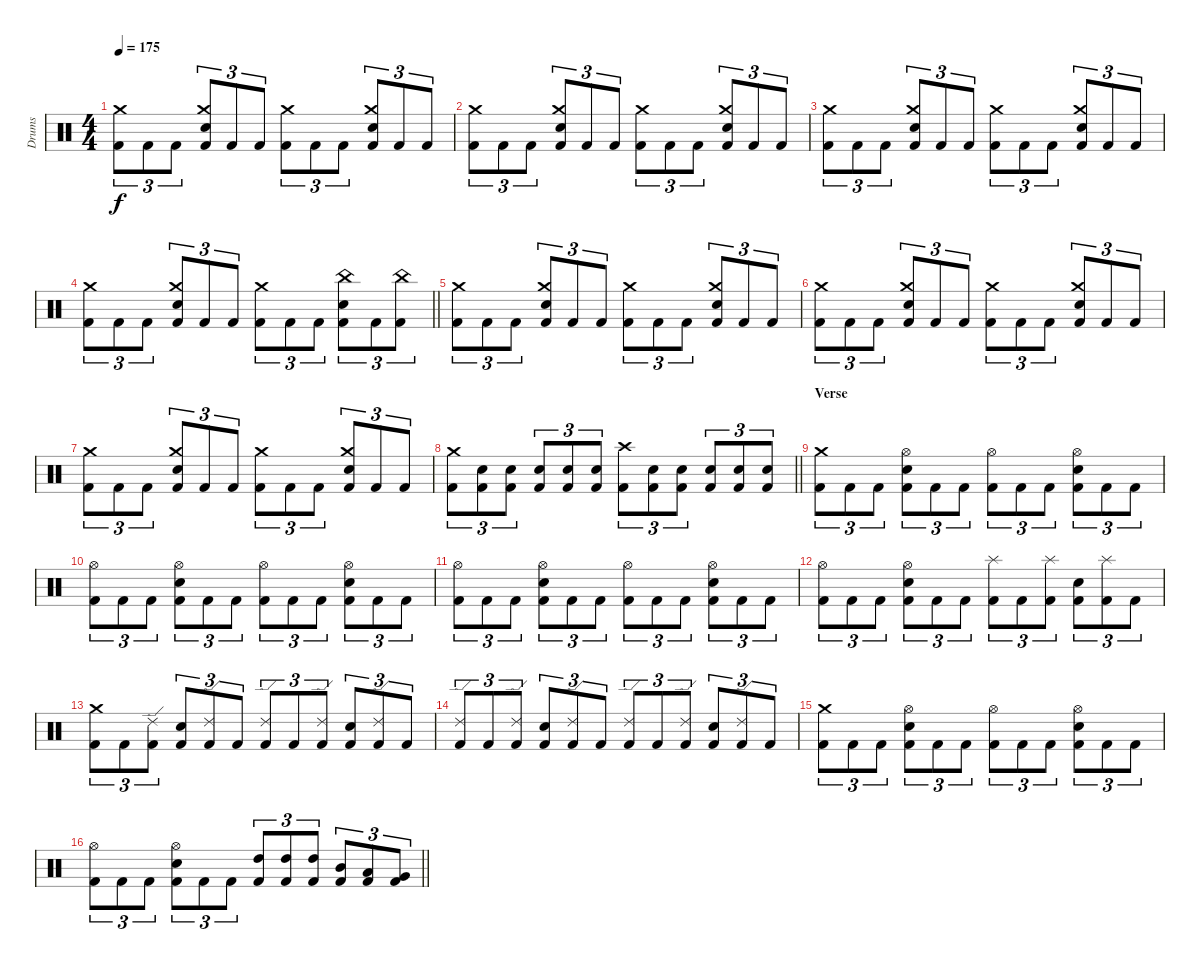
\track ("Drums" "Drums") {instrument percussion}
\staff {score}
\articulation defaults
\ts (4 4)
\section ("" "")
\tempo 175
\clef neutral
\ks c
("Kick (hit) 2" "Crash medium (hit)").8{tu (3 2) dy f} "Kick (hit) 2".8{tu (3 2)} "Kick (hit) 2".8{tu (3 2)} ("Kick (hit) 2" "Snare (hit) 2" "Crash medium (hit)").8{tu (3 2)} "Kick (hit) 2".8{tu (3 2)} "Kick (hit) 2".8{tu (3 2)} ("Kick (hit) 2" "Crash medium (hit)").8{tu (3 2)} "Kick (hit) 2".8{tu (3 2)} "Kick (hit) 2".8{tu (3 2)} ("Kick (hit) 2" "Snare (hit) 2" "Crash medium (hit)").8{tu (3 2)} "Kick (hit) 2".8{tu (3 2)} "Kick (hit) 2".8{tu (3 2)} |
("Kick (hit) 2" "Crash medium (hit)").8{tu (3 2)} "Kick (hit) 2".8{tu (3 2)} "Kick (hit) 2".8{tu (3 2)} ("Kick (hit) 2" "Snare (hit) 2" "Crash medium (hit)").8{tu (3 2)} "Kick (hit) 2".8{tu (3 2)} "Kick (hit) 2".8{tu (3 2)} ("Kick (hit) 2" "Crash medium (hit)").8{tu (3 2)} "Kick (hit) 2".8{tu (3 2)} "Kick (hit) 2".8{tu (3 2)} ("Kick (hit) 2" "Snare (hit) 2" "Crash medium (hit)").8{tu (3 2)} "Kick (hit) 2".8{tu (3 2)} "Kick (hit) 2".8{tu (3 2)} |
("Kick (hit) 2" "Crash medium (hit)").8{tu (3 2)} "Kick (hit) 2".8{tu (3 2)} "Kick (hit) 2".8{tu (3 2)} ("Kick (hit) 2" "Snare (hit) 2" "Crash medium (hit)").8{tu (3 2)} "Kick (hit) 2".8{tu (3 2)} "Kick (hit) 2".8{tu (3 2)} ("Kick (hit) 2" "Crash medium (hit)").8{tu (3 2)} "Kick (hit) 2".8{tu (3 2)} "Kick (hit) 2".8{tu (3 2)} ("Kick (hit) 2" "Snare (hit) 2" "Crash medium (hit)").8{tu (3 2)} "Kick (hit) 2".8{tu (3 2)} "Kick (hit) 2".8{tu (3 2)} |
\barLineRight lightlight
("Kick (hit) 2" "Crash medium (hit)").8{tu (3 2)} "Kick (hit) 2".8{tu (3 2)} "Kick (hit) 2".8{tu (3 2)} ("Kick (hit) 2" "Snare (hit) 2" "Crash medium (hit)").8{tu (3 2)} "Kick (hit) 2".8{tu (3 2)} "Kick (hit) 2".8{tu (3 2)} ("Kick (hit) 2" "Crash medium (hit)").8{tu (3 2)} "Kick (hit) 2".8{tu (3 2)} "Kick (hit) 2".8{tu (3 2)} ("Kick (hit) 2" "Snare (hit) 2" "China (hit)").8{tu (3 2)} "Kick (hit) 2".8{tu (3 2)} ("Kick (hit) 2" "China (hit)").8{tu (3 2)} |
("Kick (hit) 2" "Crash medium (hit)").8{tu (3 2)} "Kick (hit) 2".8{tu (3 2)} "Kick (hit) 2".8{tu (3 2)} ("Kick (hit) 2" "Snare (hit) 2" "Crash medium (hit)").8{tu (3 2)} "Kick (hit) 2".8{tu (3 2)} "Kick (hit) 2".8{tu (3 2)} ("Kick (hit) 2" "Crash medium (hit)").8{tu (3 2)} "Kick (hit) 2".8{tu (3 2)} "Kick (hit) 2".8{tu (3 2)} ("Kick (hit) 2" "Snare (hit) 2" "Crash medium (hit)").8{tu (3 2)} "Kick (hit) 2".8{tu (3 2)} "Kick (hit) 2".8{tu (3 2)} |
("Kick (hit) 2" "Crash medium (hit)").8{tu (3 2)} "Kick (hit) 2".8{tu (3 2)} "Kick (hit) 2".8{tu (3 2)} ("Kick (hit) 2" "Snare (hit) 2" "Crash medium (hit)").8{tu (3 2)} "Kick (hit) 2".8{tu (3 2)} "Kick (hit) 2".8{tu (3 2)} ("Kick (hit) 2" "Crash medium (hit)").8{tu (3 2)} "Kick (hit) 2".8{tu (3 2)} "Kick (hit) 2".8{tu (3 2)} ("Kick (hit) 2" "Snare (hit) 2" "Crash medium (hit)").8{tu (3 2)} "Kick (hit) 2".8{tu (3 2)} "Kick (hit) 2".8{tu (3 2)} |
("Kick (hit) 2" "Crash medium (hit)").8{tu (3 2)} "Kick (hit) 2".8{tu (3 2)} "Kick (hit) 2".8{tu (3 2)} ("Kick (hit) 2" "Snare (hit) 2" "Crash medium (hit)").8{tu (3 2)} "Kick (hit) 2".8{tu (3 2)} "Kick (hit) 2".8{tu (3 2)} ("Kick (hit) 2" "Crash medium (hit)").8{tu (3 2)} "Kick (hit) 2".8{tu (3 2)} "Kick (hit) 2".8{tu (3 2)} ("Kick (hit) 2" "Snare (hit) 2" "Crash medium (hit)").8{tu (3 2)} "Kick (hit) 2".8{tu (3 2)} "Kick (hit) 2".8{tu (3 2)} |
\barLineRight lightlight
("Kick (hit) 2" "Crash medium (hit)").8{tu (3 2)} ("Kick (hit) 2" "Snare (hit) 2").8{tu (3 2)} ("Kick (hit) 2" "Snare (hit) 2").8{tu (3 2)} ("Kick (hit) 2" "Snare (hit) 2").8{tu (3 2)} ("Kick (hit) 2" "Snare (hit) 2").8{tu (3 2)} ("Kick (hit) 2" "Snare (hit) 2").8{tu (3 2)} ("Kick (hit) 2" "Crash high (hit)").8{tu (3 2)} ("Kick (hit) 2" "Snare (hit) 2").8{tu (3 2)} ("Kick (hit) 2" "Snare (hit) 2").8{tu (3 2)} ("Kick (hit) 2" "Snare (hit) 2").8{tu (3 2)} ("Kick (hit) 2" "Snare (hit) 2").8{tu (3 2)} ("Kick (hit) 2" "Snare (hit) 2").8{tu (3 2)} |
\section ("" "Verse")
("Kick (hit) 2" "Crash medium (hit)").8{tu (3 2)} "Kick (hit) 2".8{tu (3 2)} "Kick (hit) 2".8{tu (3 2)} ("Kick (hit) 2" "Snare (hit) 2" "Hi-Hat (open)").8{tu (3 2)} "Kick (hit) 2".8{tu (3 2)} "Kick (hit) 2".8{tu (3 2)} ("Kick (hit) 2" "Hi-Hat (open)").8{tu (3 2)} "Kick (hit) 2".8{tu (3 2)} "Kick (hit) 2".8{tu (3 2)} ("Kick (hit) 2" "Snare (hit) 2" "Hi-Hat (open)").8{tu (3 2)} "Kick (hit) 2".8{tu (3 2)} "Kick (hit) 2".8{tu (3 2)} |
("Kick (hit) 2" "Hi-Hat (open)").8{tu (3 2)} "Kick (hit) 2".8{tu (3 2)} "Kick (hit) 2".8{tu (3 2)} ("Kick (hit) 2" "Snare (hit) 2" "Hi-Hat (open)").8{tu (3 2)} "Kick (hit) 2".8{tu (3 2)} "Kick (hit) 2".8{tu (3 2)} ("Kick (hit) 2" "Hi-Hat (open)").8{tu (3 2)} "Kick (hit) 2".8{tu (3 2)} "Kick (hit) 2".8{tu (3 2)} ("Kick (hit) 2" "Snare (hit) 2" "Hi-Hat (open)").8{tu (3 2)} "Kick (hit) 2".8{tu (3 2)} "Kick (hit) 2".8{tu (3 2)} |
("Kick (hit) 2" "Hi-Hat (open)").8{tu (3 2)} "Kick (hit) 2".8{tu (3 2)} "Kick (hit) 2".8{tu (3 2)} ("Kick (hit) 2" "Snare (hit) 2" "Hi-Hat (open)").8{tu (3 2)} "Kick (hit) 2".8{tu (3 2)} "Kick (hit) 2".8{tu (3 2)} ("Kick (hit) 2" "Hi-Hat (open)").8{tu (3 2)} "Kick (hit) 2".8{tu (3 2)} "Kick (hit) 2".8{tu (3 2)} ("Kick (hit) 2" "Snare (hit) 2" "Hi-Hat (open)").8{tu (3 2)} "Kick (hit) 2".8{tu (3 2)} "Kick (hit) 2".8{tu (3 2)} |
("Kick (hit) 2" "Hi-Hat (open)").8{tu (3 2)} "Kick (hit) 2".8{tu (3 2)} "Kick (hit) 2".8{tu (3 2)} ("Kick (hit) 2" "Snare (hit) 2" "Hi-Hat (open)").8{tu (3 2)} "Kick (hit) 2".8{tu (3 2)} "Kick (hit) 2".8{tu (3 2)} ("Kick (hit) 2" "Splash (hit)").8{tu (3 2)} "Kick (hit) 2".8{tu (3 2)} ("Kick (hit) 2" "Splash (hit)").8{tu (3 2)} ("Kick (hit) 2" "Snare (hit) 2").8{tu (3 2)} ("Kick (hit) 2" "Splash (hit)").8{tu (3 2)} "Kick (hit) 2".8{tu (3 2)} |
("Kick (hit) 2" "Crash medium (hit)").8{tu (3 2)} "Kick (hit) 2".8{tu (3 2)} ("Kick (hit) 2" "Ride (edge) 2").8{tu (3 2)} ("Kick (hit) 2" "Snare (hit) 2").8{tu (3 2)} ("Kick (hit) 2" "Ride (edge) 2").8{tu (3 2)} "Kick (hit) 2".8{tu (3 2)} ("Kick (hit) 2" "Ride (edge) 2").8{tu (3 2)} "Kick (hit) 2".8{tu (3 2)} ("Kick (hit) 2" "Ride (edge) 2").8{tu (3 2)} ("Kick (hit) 2" "Snare (hit) 2").8{tu (3 2)} ("Kick (hit) 2" "Ride (edge) 2").8{tu (3 2)} "Kick (hit) 2".8{tu (3 2)} |
("Kick (hit) 2" "Ride (edge) 2").8{tu (3 2)} "Kick (hit) 2".8{tu (3 2)} ("Kick (hit) 2" "Ride (edge) 2").8{tu (3 2)} ("Kick (hit) 2" "Snare (hit) 2").8{tu (3 2)} ("Kick (hit) 2" "Ride (edge) 2").8{tu (3 2)} "Kick (hit) 2".8{tu (3 2)} ("Kick (hit) 2" "Ride (edge) 2").8{tu (3 2)} "Kick (hit) 2".8{tu (3 2)} ("Kick (hit) 2" "Ride (edge) 2").8{tu (3 2)} ("Kick (hit) 2" "Snare (hit) 2").8{tu (3 2)} ("Kick (hit) 2" "Ride (edge) 2").8{tu (3 2)} "Kick (hit) 2".8{tu (3 2)} |
("Kick (hit) 2" "Crash medium (hit)").8{tu (3 2)} "Kick (hit) 2".8{tu (3 2)} "Kick (hit) 2".8{tu (3 2)} ("Kick (hit) 2" "Snare (hit) 2" "Hi-Hat (open)").8{tu (3 2)} "Kick (hit) 2".8{tu (3 2)} "Kick (hit) 2".8{tu (3 2)} ("Kick (hit) 2" "Hi-Hat (open)").8{tu (3 2)} "Kick (hit) 2".8{tu (3 2)} "Kick (hit) 2".8{tu (3 2)} ("Kick (hit) 2" "Snare (hit) 2" "Hi-Hat (open)").8{tu (3 2)} "Kick (hit) 2".8{tu (3 2)} "Kick (hit) 2".8{tu (3 2)} |
\barLineRight lightlight
("Kick (hit) 2" "Hi-Hat (open)").8{tu (3 2)} "Kick (hit) 2".8{tu (3 2)} "Kick (hit) 2".8{tu (3 2)} ("Kick (hit) 2" "Snare (hit) 2" "Hi-Hat (open)").8{tu (3 2)} "Kick (hit) 2".8{tu (3 2)} "Kick (hit) 2".8{tu (3 2)} ("Kick (hit) 2" "High Tom (hit)").8{tu (3 2)} ("Kick (hit) 2" "High Tom (hit)").8{tu (3 2)} ("Kick (hit) 2" "High Tom (hit)").8{tu (3 2)} ("Kick (hit) 2" "Mid Tom (hit)").8{tu (3 2)} ("Kick (hit) 2" "Low Tom (hit)").8{tu (3 2)} ("Kick (hit) 2" "Very Low Tom (hit)").8{tu (3 2)}
